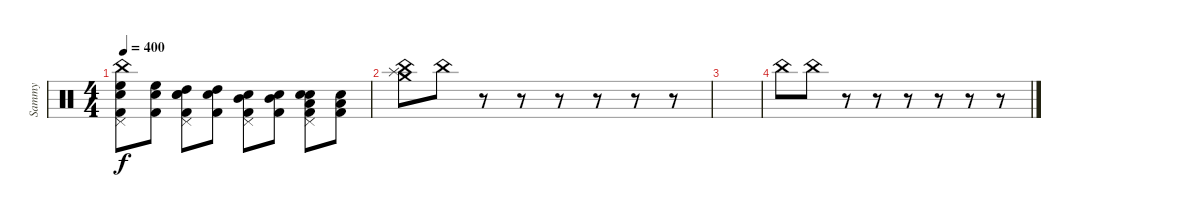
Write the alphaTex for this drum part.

\track ("Sammy" "Sammy") {instrument percussion}
\staff {score}
\articulation defaults
\ts (4 4)
\tempo 400
\clef neutral
\ks c
("High Floor Tom (hit)" "Electric Snare (hit)" "China (hit)" "Pedal Hi-Hat (hit)" "Kick (hit) 2").8{dy f} ("High Floor Tom (hit)" "Electric Snare (hit)" "Kick (hit) 2").8 ("High Tom (hit)" "Electric Snare (hit)" "Electric Snare (hit)" "Pedal Hi-Hat (hit)" "Kick (hit) 2").8 ("High Tom (hit)" "Electric Snare (hit)" "Kick (hit) 2").8 ("Mid Tom (hit)" "Electric Snare (hit)" "Pedal Hi-Hat (hit)" "Kick (hit) 2").8 ("Mid Tom (hit)" "Electric Snare (hit)" "Kick (hit) 2").8 ("Low Tom (hit)" "Electric Snare (hit)" "Electric Snare (hit)" "Pedal Hi-Hat (hit)" "Kick (hit) 2").8 ("Low Tom (hit)" "Electric Snare (hit)" "Kick (hit) 2").8 |
("Crash medium (hit)" "China (hit)" "Splash (hit)").8 "China (hit)".8 r.8 r.8 r.8 r.8 r.8 r.8 |
|
"China (hit)".8 "China (hit)".8 r.8 r.8 r.8 r.8 r.8 r.8
